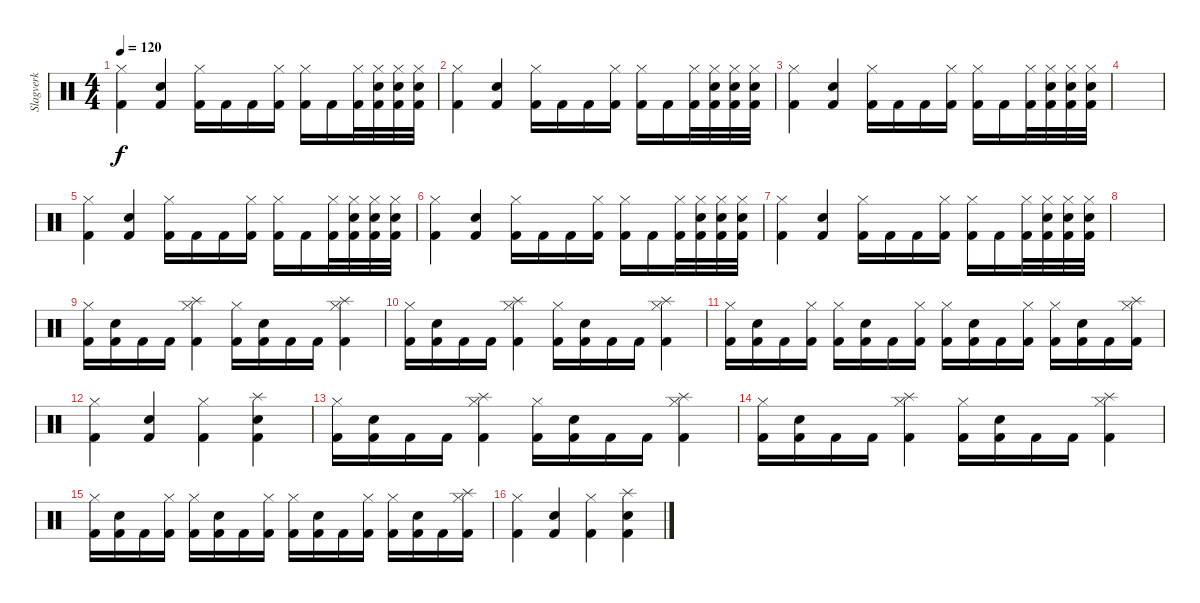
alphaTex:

\track ("Slagverk" "Slagverk") {instrument percussion}
\staff {score}
\articulation defaults
\ts (4 4)
\tempo 120
\clef neutral
\ks c
("Kick (hit) 2" "Hi-Hat (closed)").4{dy f} ("Kick (hit) 2" "Electric Snare (hit)").4 ("Kick (hit) 2" "Hi-Hat (closed)").16 "Kick (hit) 2".16 "Kick (hit) 2".16 ("Kick (hit) 2" "Hi-Hat (closed)").16 ("Kick (hit) 2" "Hi-Hat (closed)").16 "Kick (hit) 2".16 ("Kick (hit) 2" "Hi-Hat (closed)").32 ("Kick (hit) 2" "Hi-Hat (closed)" "Electric Snare (hit)").32 ("Kick (hit) 2" "Hi-Hat (closed)" "Electric Snare (hit)").32 ("Kick (hit) 2" "Hi-Hat (closed)" "Electric Snare (hit)").32 |
("Kick (hit) 2" "Hi-Hat (closed)").4 ("Kick (hit) 2" "Electric Snare (hit)").4 ("Kick (hit) 2" "Hi-Hat (closed)").16 "Kick (hit) 2".16 "Kick (hit) 2".16 ("Kick (hit) 2" "Hi-Hat (closed)").16 ("Kick (hit) 2" "Hi-Hat (closed)").16 "Kick (hit) 2".16 ("Kick (hit) 2" "Hi-Hat (closed)").32 ("Kick (hit) 2" "Hi-Hat (closed)" "Electric Snare (hit)").32 ("Kick (hit) 2" "Hi-Hat (closed)" "Electric Snare (hit)").32 ("Kick (hit) 2" "Hi-Hat (closed)" "Electric Snare (hit)").32 |
("Kick (hit) 2" "Hi-Hat (closed)").4 ("Kick (hit) 2" "Electric Snare (hit)").4 ("Kick (hit) 2" "Hi-Hat (closed)").16 "Kick (hit) 2".16 "Kick (hit) 2".16 ("Kick (hit) 2" "Hi-Hat (closed)").16 ("Kick (hit) 2" "Hi-Hat (closed)").16 "Kick (hit) 2".16 ("Kick (hit) 2" "Hi-Hat (closed)").32 ("Kick (hit) 2" "Hi-Hat (closed)" "Electric Snare (hit)").32 ("Kick (hit) 2" "Hi-Hat (closed)" "Electric Snare (hit)").32 ("Kick (hit) 2" "Hi-Hat (closed)" "Electric Snare (hit)").32 |
|
("Kick (hit) 2" "Hi-Hat (closed)").4 ("Kick (hit) 2" "Electric Snare (hit)").4 ("Kick (hit) 2" "Hi-Hat (closed)").16 "Kick (hit) 2".16 "Kick (hit) 2".16 ("Kick (hit) 2" "Hi-Hat (closed)").16 ("Kick (hit) 2" "Hi-Hat (closed)").16 "Kick (hit) 2".16 ("Kick (hit) 2" "Hi-Hat (closed)").32 ("Kick (hit) 2" "Hi-Hat (closed)" "Electric Snare (hit)").32 ("Kick (hit) 2" "Hi-Hat (closed)" "Electric Snare (hit)").32 ("Kick (hit) 2" "Hi-Hat (closed)" "Electric Snare (hit)").32 |
("Kick (hit) 2" "Hi-Hat (closed)").4 ("Kick (hit) 2" "Electric Snare (hit)").4 ("Kick (hit) 2" "Hi-Hat (closed)").16 "Kick (hit) 2".16 "Kick (hit) 2".16 ("Kick (hit) 2" "Hi-Hat (closed)").16 ("Kick (hit) 2" "Hi-Hat (closed)").16 "Kick (hit) 2".16 ("Kick (hit) 2" "Hi-Hat (closed)").32 ("Kick (hit) 2" "Hi-Hat (closed)" "Electric Snare (hit)").32 ("Kick (hit) 2" "Hi-Hat (closed)" "Electric Snare (hit)").32 ("Kick (hit) 2" "Hi-Hat (closed)" "Electric Snare (hit)").32 |
("Kick (hit) 2" "Hi-Hat (closed)").4 ("Kick (hit) 2" "Electric Snare (hit)").4 ("Kick (hit) 2" "Hi-Hat (closed)").16 "Kick (hit) 2".16 "Kick (hit) 2".16 ("Kick (hit) 2" "Hi-Hat (closed)").16 ("Kick (hit) 2" "Hi-Hat (closed)").16 "Kick (hit) 2".16 ("Kick (hit) 2" "Hi-Hat (closed)").32 ("Kick (hit) 2" "Hi-Hat (closed)" "Electric Snare (hit)").32 ("Kick (hit) 2" "Hi-Hat (closed)" "Electric Snare (hit)").32 ("Kick (hit) 2" "Hi-Hat (closed)" "Electric Snare (hit)").32 |
|
("Kick (hit) 2" "Hi-Hat (closed)").16 ("Kick (hit) 2" "Electric Snare (hit)").16 "Kick (hit) 2".16 "Kick (hit) 2".16 ("Kick (hit) 2" "Hi-Hat (closed)" "Splash (hit)").4 ("Kick (hit) 2" "Hi-Hat (closed)").16 ("Kick (hit) 2" "Electric Snare (hit)").16 "Kick (hit) 2".16 "Kick (hit) 2".16 ("Kick (hit) 2" "Hi-Hat (closed)" "Splash (hit)").4 |
("Kick (hit) 2" "Hi-Hat (closed)").16 ("Kick (hit) 2" "Electric Snare (hit)").16 "Kick (hit) 2".16 "Kick (hit) 2".16 ("Kick (hit) 2" "Hi-Hat (closed)" "Splash (hit)").4 ("Kick (hit) 2" "Hi-Hat (closed)").16 ("Kick (hit) 2" "Electric Snare (hit)").16 "Kick (hit) 2".16 "Kick (hit) 2".16 ("Kick (hit) 2" "Hi-Hat (closed)" "Splash (hit)").4 |
("Kick (hit) 2" "Hi-Hat (closed)").16 ("Kick (hit) 2" "Electric Snare (hit)").16 "Kick (hit) 2".16 ("Kick (hit) 2" "Hi-Hat (closed)").16 ("Kick (hit) 2" "Hi-Hat (closed)").16 ("Kick (hit) 2" "Electric Snare (hit)").16 "Kick (hit) 2".16 ("Kick (hit) 2" "Hi-Hat (closed)").16 ("Kick (hit) 2" "Hi-Hat (closed)").16 ("Kick (hit) 2" "Electric Snare (hit)").16 "Kick (hit) 2".16 ("Kick (hit) 2" "Hi-Hat (closed)").16 ("Kick (hit) 2" "Hi-Hat (closed)").16 ("Kick (hit) 2" "Electric Snare (hit)").16 "Kick (hit) 2".16 ("Kick (hit) 2" "Hi-Hat (closed)" "Splash (hit)").16 |
("Kick (hit) 2" "Hi-Hat (closed)").4 ("Kick (hit) 2" "Electric Snare (hit)").4 ("Kick (hit) 2" "Hi-Hat (closed)").4 ("Kick (hit) 2" "Electric Snare (hit)" "Splash (hit)").4 |
("Kick (hit) 2" "Hi-Hat (closed)").16 ("Kick (hit) 2" "Electric Snare (hit)").16 "Kick (hit) 2".16 "Kick (hit) 2".16 ("Kick (hit) 2" "Hi-Hat (closed)" "Splash (hit)").4 ("Kick (hit) 2" "Hi-Hat (closed)").16 ("Kick (hit) 2" "Electric Snare (hit)").16 "Kick (hit) 2".16 "Kick (hit) 2".16 ("Kick (hit) 2" "Hi-Hat (closed)" "Splash (hit)").4 |
("Kick (hit) 2" "Hi-Hat (closed)").16 ("Kick (hit) 2" "Electric Snare (hit)").16 "Kick (hit) 2".16 "Kick (hit) 2".16 ("Kick (hit) 2" "Hi-Hat (closed)" "Splash (hit)").4 ("Kick (hit) 2" "Hi-Hat (closed)").16 ("Kick (hit) 2" "Electric Snare (hit)").16 "Kick (hit) 2".16 "Kick (hit) 2".16 ("Kick (hit) 2" "Hi-Hat (closed)" "Splash (hit)").4 |
("Kick (hit) 2" "Hi-Hat (closed)").16 ("Kick (hit) 2" "Electric Snare (hit)").16 "Kick (hit) 2".16 ("Kick (hit) 2" "Hi-Hat (closed)").16 ("Kick (hit) 2" "Hi-Hat (closed)").16 ("Kick (hit) 2" "Electric Snare (hit)").16 "Kick (hit) 2".16 ("Kick (hit) 2" "Hi-Hat (closed)").16 ("Kick (hit) 2" "Hi-Hat (closed)").16 ("Kick (hit) 2" "Electric Snare (hit)").16 "Kick (hit) 2".16 ("Kick (hit) 2" "Hi-Hat (closed)").16 ("Kick (hit) 2" "Hi-Hat (closed)").16 ("Kick (hit) 2" "Electric Snare (hit)").16 "Kick (hit) 2".16 ("Kick (hit) 2" "Hi-Hat (closed)" "Splash (hit)").16 |
("Kick (hit) 2" "Hi-Hat (closed)").4 ("Kick (hit) 2" "Electric Snare (hit)").4 ("Kick (hit) 2" "Hi-Hat (closed)").4 ("Kick (hit) 2" "Electric Snare (hit)" "Splash (hit)").4
